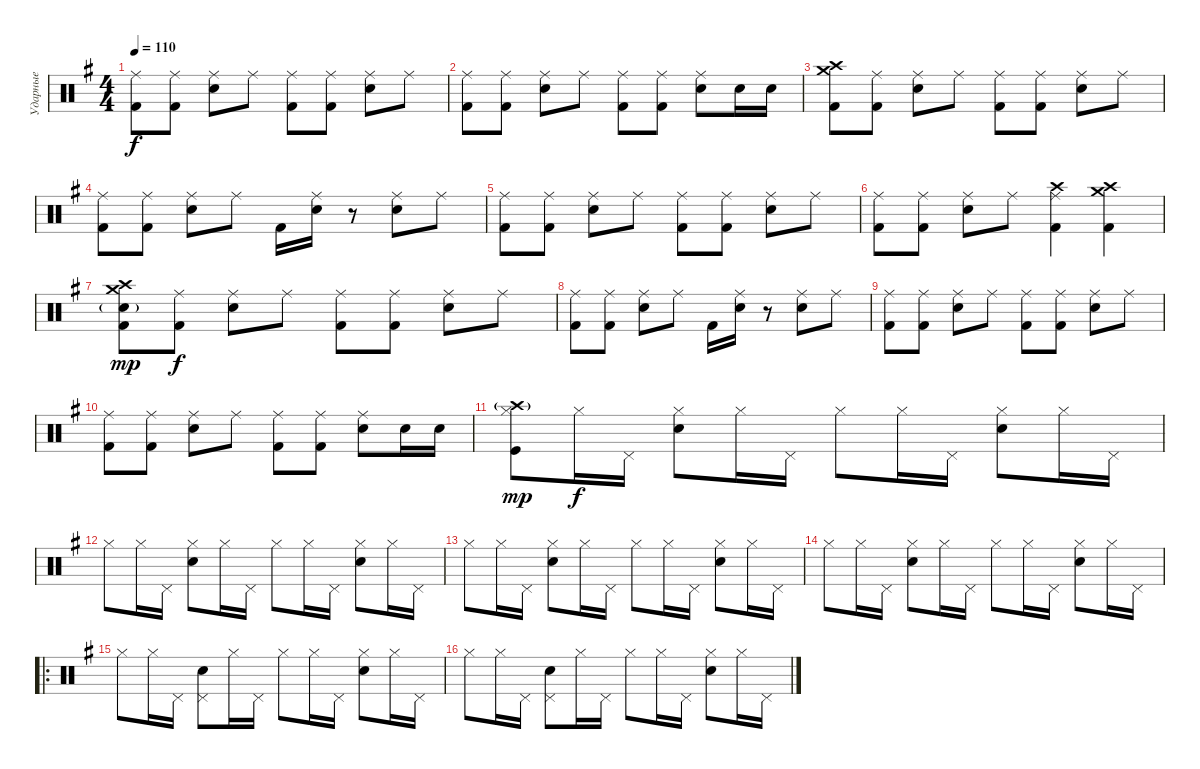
\track ("Ударные" "Ударные") {instrument percussion}
\staff {score}
\articulation defaults
\ts (4 4)
\tempo 110
\clef neutral
\ks eminor
("Ride (middle)" "Kick (hit) 2").8{dy f} ("Ride (middle)" "Kick (hit) 2").8 ("Ride (middle)" "Electric Snare (hit)").8 "Ride (middle)".8 ("Ride (middle)" "Kick (hit) 2").8 ("Ride (middle)" "Kick (hit) 2").8 ("Ride (middle)" "Electric Snare (hit)").8 "Ride (middle)".8 |
("Ride (middle)" "Kick (hit) 2").8 ("Ride (middle)" "Kick (hit) 2").8 ("Ride (middle)" "Electric Snare (hit)").8 "Ride (middle)".8 ("Ride (middle)" "Kick (hit) 2").8 ("Ride (middle)" "Kick (hit) 2").8 ("Ride (middle)" "Electric Snare (hit)").8 "Electric Snare (hit)".16 "Electric Snare (hit)".16 |
("Crash high (hit)" "Crash medium (hit)" "Kick (hit) 2").8 ("Ride (middle)" "Kick (hit) 2").8 ("Ride (middle)" "Electric Snare (hit)").8 "Ride (middle)".8 ("Ride (middle)" "Kick (hit) 2").8 ("Ride (middle)" "Kick (hit) 2").8 ("Ride (middle)" "Electric Snare (hit)").8 "Ride (middle)".8 |
("Ride (middle)" "Kick (hit) 2").8 ("Ride (middle)" "Kick (hit) 2").8 ("Ride (middle)" "Electric Snare (hit)").8 "Ride (middle)".8 "Kick (hit) 2".16 ("Ride (middle)" "Electric Snare (hit)").16 r.8 ("Ride (middle)" "Electric Snare (hit)").8 "Ride (middle)".8 |
("Ride (middle)" "Kick (hit) 2").8 ("Ride (middle)" "Kick (hit) 2").8 ("Ride (middle)" "Electric Snare (hit)").8 "Ride (middle)".8 ("Ride (middle)" "Kick (hit) 2").8 ("Ride (middle)" "Kick (hit) 2").8 ("Ride (middle)" "Electric Snare (hit)").8 "Ride (middle)".8 |
("Ride (middle)" "Kick (hit) 2").8 ("Ride (middle)" "Kick (hit) 2").8 ("Ride (middle)" "Electric Snare (hit)").8 "Ride (middle)".8 ("Ride (middle)" "Crash high (hit)" "Kick (hit) 2").4 ("Crash medium (hit)" "Crash high (hit)" "Kick (hit) 2").4 |
("Crash high (hit)" "Crash medium (hit)" "Electric Snare (hit)"{g} "Kick (hit) 2").8{dy mp} ("Ride (middle)" "Kick (hit) 2").8{dy f} ("Ride (middle)" "Electric Snare (hit)").8 "Ride (middle)".8 ("Ride (middle)" "Kick (hit) 2").8 ("Ride (middle)" "Kick (hit) 2").8 ("Ride (middle)" "Electric Snare (hit)").8 "Ride (middle)".8 |
("Ride (middle)" "Kick (hit) 2").8 ("Ride (middle)" "Kick (hit) 2").8 ("Ride (middle)" "Electric Snare (hit)").8 "Ride (middle)".8 "Kick (hit) 2".16 ("Ride (middle)" "Electric Snare (hit)").16 r.8 ("Ride (middle)" "Electric Snare (hit)").8 "Ride (middle)".8 |
("Ride (middle)" "Kick (hit) 2").8 ("Ride (middle)" "Kick (hit) 2").8 ("Ride (middle)" "Electric Snare (hit)").8 "Ride (middle)".8 ("Ride (middle)" "Kick (hit) 2").8 ("Ride (middle)" "Kick (hit) 2").8 ("Ride (middle)" "Electric Snare (hit)").8 "Ride (middle)".8 |
("Ride (middle)" "Kick (hit) 2").8 ("Ride (middle)" "Kick (hit) 2").8 ("Ride (middle)" "Electric Snare (hit)").8 "Ride (middle)".8 ("Ride (middle)" "Kick (hit) 2").8 ("Ride (middle)" "Kick (hit) 2").8 ("Ride (middle)" "Electric Snare (hit)").8 "Electric Snare (hit)".16 "Electric Snare (hit)".16 |
("Crash high (hit)"{g} "Hi-Hat (closed)" "Kick (hit)").8{dy mp} "Hi-Hat (closed)".16{dy f} "Pedal Hi-Hat (hit)".16 ("Hi-Hat (closed)" "Electric Snare (hit)").8 "Hi-Hat (closed)".16 "Pedal Hi-Hat (hit)".16 "Hi-Hat (closed)".8 "Hi-Hat (closed)".16 "Pedal Hi-Hat (hit)".16 ("Hi-Hat (closed)" "Electric Snare (hit)").8 "Hi-Hat (closed)".16 "Pedal Hi-Hat (hit)".16 |
"Hi-Hat (closed)".8 "Hi-Hat (closed)".16 "Pedal Hi-Hat (hit)".16 ("Hi-Hat (closed)" "Electric Snare (hit)").8 "Hi-Hat (closed)".16 "Pedal Hi-Hat (hit)".16 "Hi-Hat (closed)".8 "Hi-Hat (closed)".16 "Pedal Hi-Hat (hit)".16 ("Hi-Hat (closed)" "Electric Snare (hit)").8 "Hi-Hat (closed)".16 "Pedal Hi-Hat (hit)".16 |
"Hi-Hat (closed)".8 "Hi-Hat (closed)".16 "Pedal Hi-Hat (hit)".16 ("Hi-Hat (closed)" "Electric Snare (hit)").8 "Hi-Hat (closed)".16 "Pedal Hi-Hat (hit)".16 "Hi-Hat (closed)".8 "Hi-Hat (closed)".16 "Pedal Hi-Hat (hit)".16 ("Hi-Hat (closed)" "Electric Snare (hit)").8 "Hi-Hat (closed)".16 "Pedal Hi-Hat (hit)".16 |
"Hi-Hat (closed)".8 "Hi-Hat (closed)".16 "Pedal Hi-Hat (hit)".16 ("Hi-Hat (closed)" "Electric Snare (hit)").8 "Hi-Hat (closed)".16 "Pedal Hi-Hat (hit)".16 "Hi-Hat (closed)".8 "Hi-Hat (closed)".16 "Pedal Hi-Hat (hit)".16 ("Hi-Hat (closed)" "Electric Snare (hit)").8 "Hi-Hat (closed)".16 "Pedal Hi-Hat (hit)".16 |
\ro "Hi-Hat (closed)".8 "Hi-Hat (closed)".16 "Pedal Hi-Hat (hit)".16
("Pedal Hi-Hat (hit)" "Electric Snare (hit)").8 "Hi-Hat (closed)".16 "Pedal Hi-Hat (hit)".16 "Hi-Hat (closed)".8 "Hi-Hat (closed)".16 "Pedal Hi-Hat (hit)".16 ("Hi-Hat (closed)" "Electric Snare (hit)").8 "Hi-Hat (closed)".16 "Pedal Hi-Hat (hit)".16 |
"Hi-Hat (closed)".8 "Hi-Hat (closed)".16 "Pedal Hi-Hat (hit)".16 ("Pedal Hi-Hat (hit)" "Electric Snare (hit)").8 "Hi-Hat (closed)".16 "Pedal Hi-Hat (hit)".16 "Hi-Hat (closed)".8 "Hi-Hat (closed)".16 "Pedal Hi-Hat (hit)".16 ("Hi-Hat (closed)" "Electric Snare (hit)").8 "Hi-Hat (closed)".16 "Pedal Hi-Hat (hit)".16
